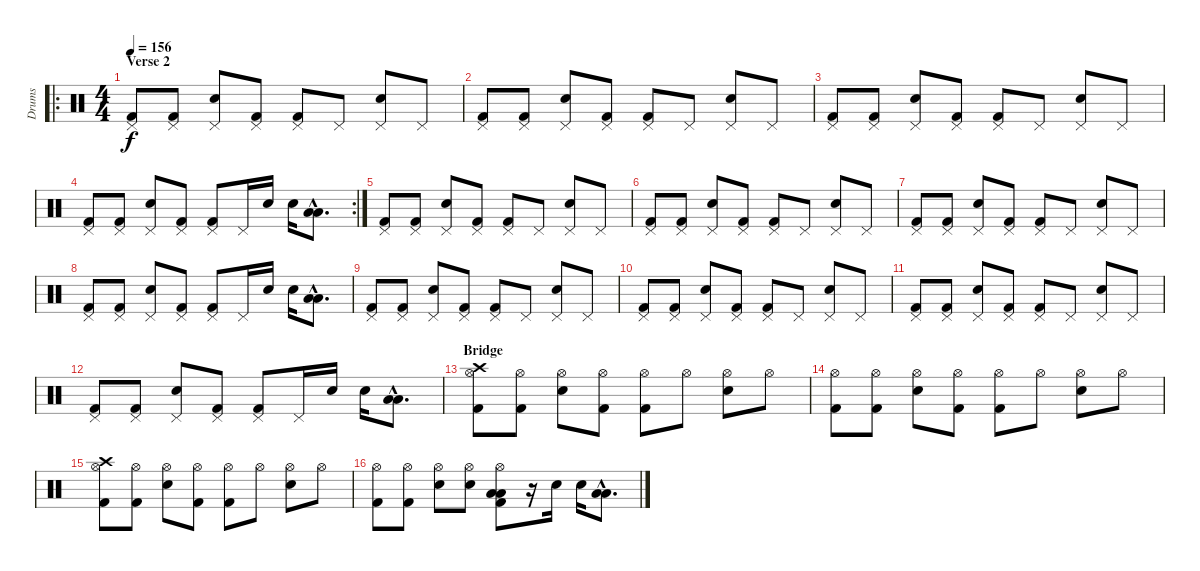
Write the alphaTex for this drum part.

\track ("Drums" "Drums") {instrument percussion}
\staff {score}
\articulation defaults
\ro
\ts (4 4)
\section ("" "Verse 2")
\tempo 156
\clef neutral
\ks c
("Pedal Hi-Hat (hit)" "Kick (hit) 2").8{dy f} ("Pedal Hi-Hat (hit)" "Kick (hit) 2").8 ("Pedal Hi-Hat (hit)" "Snare (hit) 2").8 ("Pedal Hi-Hat (hit)" "Kick (hit) 2").8 ("Pedal Hi-Hat (hit)" "Kick (hit) 2").8 "Pedal Hi-Hat (hit)".8 ("Pedal Hi-Hat (hit)" "Snare (hit) 2").8 "Pedal Hi-Hat (hit)".8 |
("Pedal Hi-Hat (hit)" "Kick (hit) 2").8 ("Pedal Hi-Hat (hit)" "Kick (hit) 2").8 ("Pedal Hi-Hat (hit)" "Snare (hit) 2").8 ("Pedal Hi-Hat (hit)" "Kick (hit) 2").8 ("Pedal Hi-Hat (hit)" "Kick (hit) 2").8 "Pedal Hi-Hat (hit)".8 ("Pedal Hi-Hat (hit)" "Snare (hit) 2").8 "Pedal Hi-Hat (hit)".8 |
("Pedal Hi-Hat (hit)" "Kick (hit) 2").8 ("Pedal Hi-Hat (hit)" "Kick (hit) 2").8 ("Pedal Hi-Hat (hit)" "Snare (hit) 2").8 ("Pedal Hi-Hat (hit)" "Kick (hit) 2").8 ("Pedal Hi-Hat (hit)" "Kick (hit) 2").8 "Pedal Hi-Hat (hit)".8 ("Pedal Hi-Hat (hit)" "Snare (hit) 2").8 "Pedal Hi-Hat (hit)".8 |
\rc 2
("Pedal Hi-Hat (hit)" "Kick (hit) 2").8 ("Pedal Hi-Hat (hit)" "Kick (hit) 2").8 ("Pedal Hi-Hat (hit)" "Snare (hit) 2").8 ("Pedal Hi-Hat (hit)" "Kick (hit) 2").8 ("Pedal Hi-Hat (hit)" "Kick (hit) 2").8 "Pedal Hi-Hat (hit)".16 "Snare (hit) 2".16 "Snare (hit) 2".16 ("Low Tom (hit)"{hac} "Low Tom (hit)"{hac}).8{d} |
("Pedal Hi-Hat (hit)" "Kick (hit) 2").8 ("Pedal Hi-Hat (hit)" "Kick (hit) 2").8 ("Pedal Hi-Hat (hit)" "Snare (hit) 2").8 ("Pedal Hi-Hat (hit)" "Kick (hit) 2").8 ("Pedal Hi-Hat (hit)" "Kick (hit) 2").8 "Pedal Hi-Hat (hit)".8 ("Pedal Hi-Hat (hit)" "Snare (hit) 2").8 "Pedal Hi-Hat (hit)".8 |
("Pedal Hi-Hat (hit)" "Kick (hit) 2").8 ("Pedal Hi-Hat (hit)" "Kick (hit) 2").8 ("Pedal Hi-Hat (hit)" "Snare (hit) 2").8 ("Pedal Hi-Hat (hit)" "Kick (hit) 2").8 ("Pedal Hi-Hat (hit)" "Kick (hit) 2").8 "Pedal Hi-Hat (hit)".8 ("Pedal Hi-Hat (hit)" "Snare (hit) 2").8 "Pedal Hi-Hat (hit)".8 |
("Pedal Hi-Hat (hit)" "Kick (hit) 2").8 ("Pedal Hi-Hat (hit)" "Kick (hit) 2").8 ("Pedal Hi-Hat (hit)" "Snare (hit) 2").8 ("Pedal Hi-Hat (hit)" "Kick (hit) 2").8 ("Pedal Hi-Hat (hit)" "Kick (hit) 2").8 "Pedal Hi-Hat (hit)".8 ("Pedal Hi-Hat (hit)" "Snare (hit) 2").8 "Pedal Hi-Hat (hit)".8 |
("Pedal Hi-Hat (hit)" "Kick (hit) 2").8 ("Pedal Hi-Hat (hit)" "Kick (hit) 2").8 ("Pedal Hi-Hat (hit)" "Snare (hit) 2").8 ("Pedal Hi-Hat (hit)" "Kick (hit) 2").8 ("Pedal Hi-Hat (hit)" "Kick (hit) 2").8 "Pedal Hi-Hat (hit)".16 "Snare (hit) 2".16 "Snare (hit) 2".16 ("Low Tom (hit)"{hac} "Low Tom (hit)"{hac}).8{d} |
("Pedal Hi-Hat (hit)" "Kick (hit) 2").8 ("Pedal Hi-Hat (hit)" "Kick (hit) 2").8 ("Pedal Hi-Hat (hit)" "Snare (hit) 2").8 ("Pedal Hi-Hat (hit)" "Kick (hit) 2").8 ("Pedal Hi-Hat (hit)" "Kick (hit) 2").8 "Pedal Hi-Hat (hit)".8 ("Pedal Hi-Hat (hit)" "Snare (hit) 2").8 "Pedal Hi-Hat (hit)".8 |
("Pedal Hi-Hat (hit)" "Kick (hit) 2").8 ("Pedal Hi-Hat (hit)" "Kick (hit) 2").8 ("Pedal Hi-Hat (hit)" "Snare (hit) 2").8 ("Pedal Hi-Hat (hit)" "Kick (hit) 2").8 ("Pedal Hi-Hat (hit)" "Kick (hit) 2").8 "Pedal Hi-Hat (hit)".8 ("Pedal Hi-Hat (hit)" "Snare (hit) 2").8 "Pedal Hi-Hat (hit)".8 |
("Pedal Hi-Hat (hit)" "Kick (hit) 2").8 ("Pedal Hi-Hat (hit)" "Kick (hit) 2").8 ("Pedal Hi-Hat (hit)" "Snare (hit) 2").8 ("Pedal Hi-Hat (hit)" "Kick (hit) 2").8 ("Pedal Hi-Hat (hit)" "Kick (hit) 2").8 "Pedal Hi-Hat (hit)".8 ("Pedal Hi-Hat (hit)" "Snare (hit) 2").8 "Pedal Hi-Hat (hit)".8 |
("Pedal Hi-Hat (hit)" "Kick (hit) 2").8 ("Pedal Hi-Hat (hit)" "Kick (hit) 2").8 ("Pedal Hi-Hat (hit)" "Snare (hit) 2").8 ("Pedal Hi-Hat (hit)" "Kick (hit) 2").8 ("Pedal Hi-Hat (hit)" "Kick (hit) 2").8 "Pedal Hi-Hat (hit)".16 "Snare (hit) 2".16 "Snare (hit) 2".16 ("Low Tom (hit)"{hac} "Low Tom (hit)"{hac}).8{d} |
\section ("" "Bridge")
("Hi-Hat (open)" "Kick (hit) 2" "Crash high (hit)").8 ("Hi-Hat (open)" "Kick (hit) 2").8 ("Hi-Hat (open)" "Snare (hit) 2").8 ("Hi-Hat (open)" "Kick (hit) 2").8 ("Hi-Hat (open)" "Kick (hit) 2").8 "Hi-Hat (open)".8 ("Hi-Hat (open)" "Snare (hit) 2").8 "Hi-Hat (open)".8 |
("Hi-Hat (open)" "Kick (hit) 2").8 ("Hi-Hat (open)" "Kick (hit) 2").8 ("Hi-Hat (open)" "Snare (hit) 2").8 ("Hi-Hat (open)" "Kick (hit) 2").8 ("Hi-Hat (open)" "Kick (hit) 2").8 "Hi-Hat (open)".8 ("Hi-Hat (open)" "Snare (hit) 2").8 "Hi-Hat (open)".8 |
("Hi-Hat (open)" "Kick (hit) 2" "Crash high (hit)").8 ("Hi-Hat (open)" "Kick (hit) 2").8 ("Hi-Hat (open)" "Snare (hit) 2").8 ("Hi-Hat (open)" "Kick (hit) 2").8 ("Hi-Hat (open)" "Kick (hit) 2").8 "Hi-Hat (open)".8 ("Hi-Hat (open)" "Snare (hit) 2").8 "Hi-Hat (open)".8 |
("Hi-Hat (open)" "Kick (hit) 2").8 ("Hi-Hat (open)" "Kick (hit) 2").8 ("Hi-Hat (open)" "Snare (hit) 2").8 ("Hi-Hat (open)" "Snare (hit) 2").8 ("Hi-Hat (open)" "Kick (hit) 2" "Low Tom (hit)" "Low Tom (hit)").8 r.16 "Snare (hit) 2".16 "Snare (hit) 2".16 ("Low Tom (hit)"{hac} "Low Tom (hit)"{hac}).8{d}
